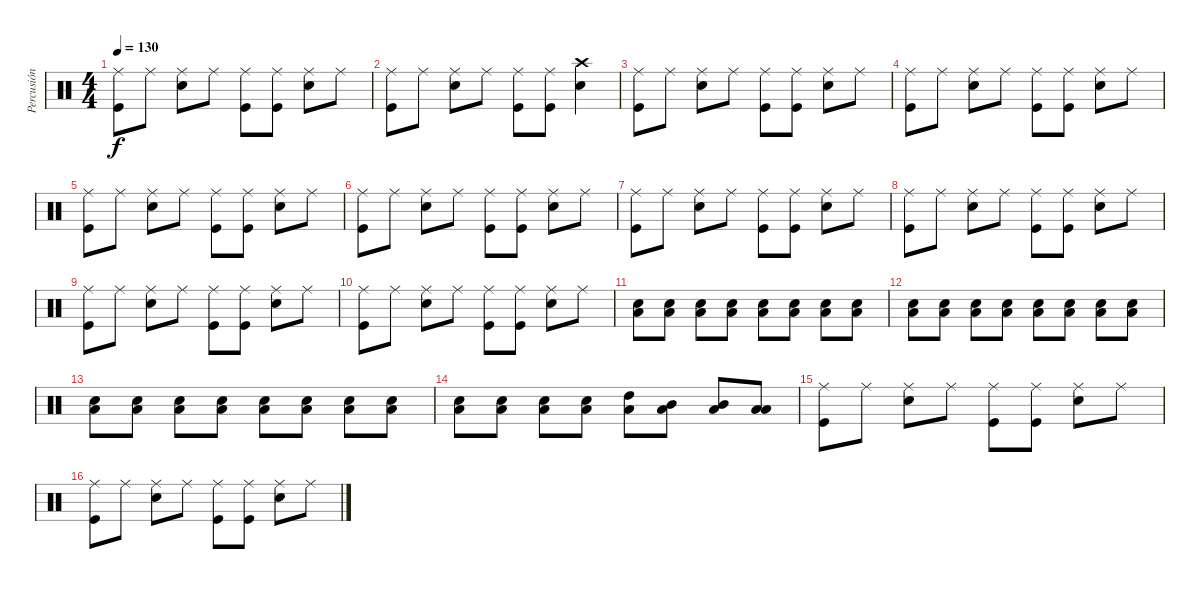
\track ("Percusión" "Percusión") {instrument percussion}
\staff {score}
\articulation defaults
\ts (4 4)
\tempo 130
\clef neutral
\ks c
("Kick (hit)" "Ride (middle)").8{dy f} "Ride (middle)".8 ("Ride (middle)" "Snare (hit) 2").8 "Ride (middle)".8 ("Ride (middle)" "Kick (hit)").8 ("Ride (middle)" "Kick (hit)").8 ("Ride (middle)" "Snare (hit) 2").8 "Ride (middle)".8 |
("Kick (hit)" "Ride (middle)").8 "Ride (middle)".8 ("Ride (middle)" "Snare (hit) 2").8 "Ride (middle)".8 ("Ride (middle)" "Kick (hit)").8 ("Ride (middle)" "Kick (hit)").8 ("Crash high (hit)" "Snare (hit) 2").4 |
("Kick (hit)" "Ride (middle)").8 "Ride (middle)".8 ("Ride (middle)" "Snare (hit) 2").8 "Ride (middle)".8 ("Ride (middle)" "Kick (hit)").8 ("Ride (middle)" "Kick (hit)").8 ("Ride (middle)" "Snare (hit) 2").8 "Ride (middle)".8 |
("Kick (hit)" "Ride (middle)").8 "Ride (middle)".8 ("Ride (middle)" "Snare (hit) 2").8 "Ride (middle)".8 ("Ride (middle)" "Kick (hit)").8 ("Ride (middle)" "Kick (hit)").8 ("Ride (middle)" "Snare (hit) 2").8 "Ride (middle)".8 |
("Kick (hit)" "Ride (middle)").8 "Ride (middle)".8 ("Ride (middle)" "Snare (hit) 2").8 "Ride (middle)".8 ("Ride (middle)" "Kick (hit)").8 ("Ride (middle)" "Kick (hit)").8 ("Ride (middle)" "Snare (hit) 2").8 "Ride (middle)".8 |
("Kick (hit)" "Ride (middle)").8 "Ride (middle)".8 ("Ride (middle)" "Snare (hit) 2").8 "Ride (middle)".8 ("Ride (middle)" "Kick (hit)").8 ("Ride (middle)" "Kick (hit)").8 ("Ride (middle)" "Snare (hit) 2").8 "Ride (middle)".8 |
("Kick (hit)" "Ride (middle)").8 "Ride (middle)".8 ("Ride (middle)" "Snare (hit) 2").8 "Ride (middle)".8 ("Ride (middle)" "Kick (hit)").8 ("Ride (middle)" "Kick (hit)").8 ("Ride (middle)" "Snare (hit) 2").8 "Ride (middle)".8 |
("Kick (hit)" "Ride (middle)").8 "Ride (middle)".8 ("Ride (middle)" "Snare (hit) 2").8 "Ride (middle)".8 ("Ride (middle)" "Kick (hit)").8 ("Ride (middle)" "Kick (hit)").8 ("Ride (middle)" "Snare (hit) 2").8 "Ride (middle)".8 |
("Kick (hit)" "Ride (middle)").8 "Ride (middle)".8 ("Ride (middle)" "Snare (hit) 2").8 "Ride (middle)".8 ("Ride (middle)" "Kick (hit)").8 ("Ride (middle)" "Kick (hit)").8 ("Ride (middle)" "Snare (hit) 2").8 "Ride (middle)".8 |
("Kick (hit)" "Ride (middle)").8 "Ride (middle)".8 ("Ride (middle)" "Snare (hit) 2").8 "Ride (middle)".8 ("Ride (middle)" "Kick (hit)").8 ("Ride (middle)" "Kick (hit)").8 ("Ride (middle)" "Snare (hit) 2").8 "Ride (middle)".8 |
("Low Tom (hit)" "Snare (hit) 2").8 ("Snare (hit) 2" "Low Tom (hit)").8 ("Low Tom (hit)" "Snare (hit) 2").8 ("Low Tom (hit)" "Snare (hit) 2").8 ("Low Tom (hit)" "Snare (hit) 2").8 ("Low Tom (hit)" "Snare (hit) 2").8 ("Low Tom (hit)" "Snare (hit) 2").8 ("Low Tom (hit)" "Snare (hit) 2").8 |
("Low Tom (hit)" "Snare (hit) 2").8 ("Low Tom (hit)" "Snare (hit) 2").8 ("Low Tom (hit)" "Snare (hit) 2").8 ("Low Tom (hit)" "Snare (hit) 2").8 ("Low Tom (hit)" "Snare (hit) 2").8 ("Low Tom (hit)" "Snare (hit) 2").8 ("Low Tom (hit)" "Snare (hit) 2").8 ("Low Tom (hit)" "Snare (hit) 2").8 |
("Low Tom (hit)" "Snare (hit) 2").8 ("Low Tom (hit)" "Snare (hit) 2").8 ("Low Tom (hit)" "Snare (hit) 2").8 ("Low Tom (hit)" "Snare (hit) 2").8 ("Low Tom (hit)" "Snare (hit) 2").8 ("Low Tom (hit)" "Snare (hit) 2").8 ("Low Tom (hit)" "Snare (hit) 2").8 ("Low Tom (hit)" "Snare (hit) 2").8 |
("Low Tom (hit)" "Snare (hit) 2").8 ("Low Tom (hit)" "Snare (hit) 2").8 ("Low Tom (hit)" "Snare (hit) 2").8 ("Low Tom (hit)" "Snare (hit) 2").8 ("Low Tom (hit)" "High Tom (hit)").8 ("Low Tom (hit)" "Mid Tom (hit)").8 ("Low Tom (hit)" "Mid Tom (hit)").8 ("Low Tom (hit)" "Low Tom (hit)").8 |
("Kick (hit)" "Ride (middle)").8 "Ride (middle)".8 ("Ride (middle)" "Snare (hit) 2").8 "Ride (middle)".8 ("Ride (middle)" "Kick (hit)").8 ("Ride (middle)" "Kick (hit)").8 ("Ride (middle)" "Snare (hit) 2").8 "Ride (middle)".8 |
("Kick (hit)" "Ride (middle)").8 "Ride (middle)".8 ("Ride (middle)" "Snare (hit) 2").8 "Ride (middle)".8 ("Ride (middle)" "Kick (hit)").8 ("Ride (middle)" "Kick (hit)").8 ("Ride (middle)" "Snare (hit) 2").8 "Ride (middle)".8
